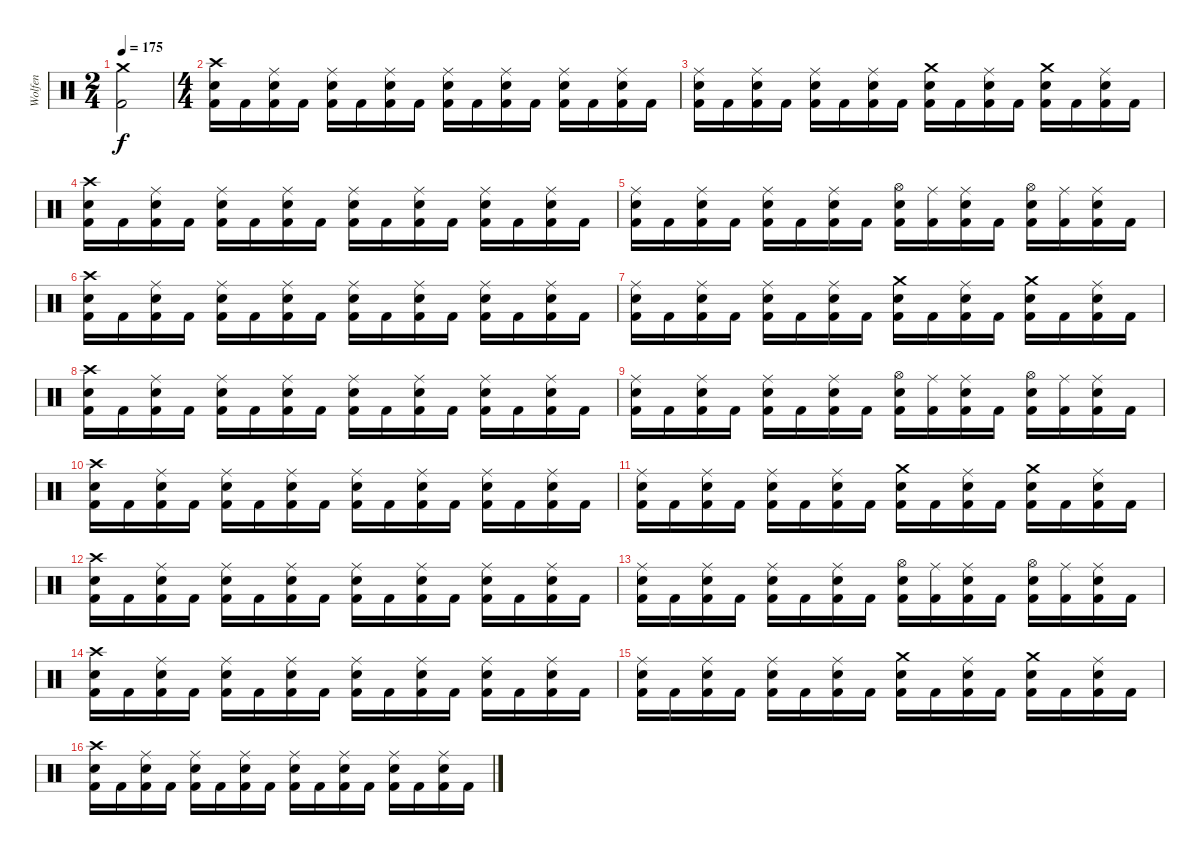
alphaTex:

\track ("Wolfen" "Wolfen") {instrument percussion}
\staff {score}
\articulation defaults
\ts (2 4)
\tempo 175
\clef neutral
\ks c
("Crash medium (hit)" "Kick (hit) 2").2{dy f} |
\ts (4 4)
("Crash high (hit)" "Electric Snare (hit)" "Kick (hit) 2").16 "Kick (hit) 2".16 ("Ride (middle)" "Electric Snare (hit)" "Kick (hit) 2").16 "Kick (hit) 2".16 ("Ride (middle)" "Electric Snare (hit)" "Kick (hit) 2").16 "Kick (hit) 2".16 ("Ride (middle)" "Electric Snare (hit)" "Kick (hit) 2").16 "Kick (hit) 2".16 ("Ride (middle)" "Electric Snare (hit)" "Kick (hit) 2").16 "Kick (hit) 2".16 ("Ride (middle)" "Electric Snare (hit)" "Kick (hit) 2").16 "Kick (hit) 2".16 ("Ride (middle)" "Electric Snare (hit)" "Kick (hit) 2").16 "Kick (hit) 2".16 ("Ride (middle)" "Electric Snare (hit)" "Kick (hit) 2").16 "Kick (hit) 2".16 |
("Ride (middle)" "Electric Snare (hit)" "Kick (hit) 2").16 "Kick (hit) 2".16 ("Ride (middle)" "Electric Snare (hit)" "Kick (hit) 2").16 "Kick (hit) 2".16 ("Ride (middle)" "Electric Snare (hit)" "Kick (hit) 2").16 "Kick (hit) 2".16 ("Ride (middle)" "Electric Snare (hit)" "Kick (hit) 2").16 "Kick (hit) 2".16 ("Crash medium (hit)" "Electric Snare (hit)" "Kick (hit) 2").16 "Kick (hit) 2".16 ("Ride (middle)" "Electric Snare (hit)" "Kick (hit) 2").16 "Kick (hit) 2".16 ("Crash medium (hit)" "Electric Snare (hit)" "Kick (hit) 2").16 "Kick (hit) 2".16 ("Ride (middle)" "Electric Snare (hit)" "Kick (hit) 2").16 "Kick (hit) 2".16 |
("Crash high (hit)" "Electric Snare (hit)" "Kick (hit) 2").16 "Kick (hit) 2".16 ("Ride (middle)" "Electric Snare (hit)" "Kick (hit) 2").16 "Kick (hit) 2".16 ("Ride (middle)" "Electric Snare (hit)" "Kick (hit) 2").16 "Kick (hit) 2".16 ("Ride (middle)" "Electric Snare (hit)" "Kick (hit) 2").16 "Kick (hit) 2".16 ("Ride (middle)" "Electric Snare (hit)" "Kick (hit) 2").16 "Kick (hit) 2".16 ("Ride (middle)" "Electric Snare (hit)" "Kick (hit) 2").16 "Kick (hit) 2".16 ("Ride (middle)" "Electric Snare (hit)" "Kick (hit) 2").16 "Kick (hit) 2".16 ("Ride (middle)" "Electric Snare (hit)" "Kick (hit) 2").16 "Kick (hit) 2".16 |
("Ride (middle)" "Electric Snare (hit)" "Kick (hit) 2").16 "Kick (hit) 2".16 ("Ride (middle)" "Electric Snare (hit)" "Kick (hit) 2").16 "Kick (hit) 2".16 ("Ride (middle)" "Electric Snare (hit)" "Kick (hit) 2").16 "Kick (hit) 2".16 ("Ride (middle)" "Electric Snare (hit)" "Kick (hit) 2").16 "Kick (hit) 2".16 ("Hi-Hat (open)" "Electric Snare (hit)" "Kick (hit) 2").16 ("Ride (middle)" "Kick (hit) 2").16 ("Ride (middle)" "Electric Snare (hit)" "Kick (hit) 2").16 "Kick (hit) 2".16 ("Hi-Hat (open)" "Electric Snare (hit)" "Kick (hit) 2").16 ("Ride (middle)" "Kick (hit) 2").16 ("Ride (middle)" "Electric Snare (hit)" "Kick (hit) 2").16 "Kick (hit) 2".16 |
("Crash high (hit)" "Electric Snare (hit)" "Kick (hit) 2").16 "Kick (hit) 2".16 ("Ride (middle)" "Electric Snare (hit)" "Kick (hit) 2").16 "Kick (hit) 2".16 ("Ride (middle)" "Electric Snare (hit)" "Kick (hit) 2").16 "Kick (hit) 2".16 ("Ride (middle)" "Electric Snare (hit)" "Kick (hit) 2").16 "Kick (hit) 2".16 ("Ride (middle)" "Electric Snare (hit)" "Kick (hit) 2").16 "Kick (hit) 2".16 ("Ride (middle)" "Electric Snare (hit)" "Kick (hit) 2").16 "Kick (hit) 2".16 ("Ride (middle)" "Electric Snare (hit)" "Kick (hit) 2").16 "Kick (hit) 2".16 ("Ride (middle)" "Electric Snare (hit)" "Kick (hit) 2").16 "Kick (hit) 2".16 |
("Ride (middle)" "Electric Snare (hit)" "Kick (hit) 2").16 "Kick (hit) 2".16 ("Ride (middle)" "Electric Snare (hit)" "Kick (hit) 2").16 "Kick (hit) 2".16 ("Ride (middle)" "Electric Snare (hit)" "Kick (hit) 2").16 "Kick (hit) 2".16 ("Ride (middle)" "Electric Snare (hit)" "Kick (hit) 2").16 "Kick (hit) 2".16 ("Crash medium (hit)" "Electric Snare (hit)" "Kick (hit) 2").16 "Kick (hit) 2".16 ("Ride (middle)" "Electric Snare (hit)" "Kick (hit) 2").16 "Kick (hit) 2".16 ("Crash medium (hit)" "Electric Snare (hit)" "Kick (hit) 2").16 "Kick (hit) 2".16 ("Ride (middle)" "Electric Snare (hit)" "Kick (hit) 2").16 "Kick (hit) 2".16 |
("Crash high (hit)" "Electric Snare (hit)" "Kick (hit) 2").16 "Kick (hit) 2".16 ("Ride (middle)" "Electric Snare (hit)" "Kick (hit) 2").16 "Kick (hit) 2".16 ("Ride (middle)" "Electric Snare (hit)" "Kick (hit) 2").16 "Kick (hit) 2".16 ("Ride (middle)" "Electric Snare (hit)" "Kick (hit) 2").16 "Kick (hit) 2".16 ("Ride (middle)" "Electric Snare (hit)" "Kick (hit) 2").16 "Kick (hit) 2".16 ("Ride (middle)" "Electric Snare (hit)" "Kick (hit) 2").16 "Kick (hit) 2".16 ("Ride (middle)" "Electric Snare (hit)" "Kick (hit) 2").16 "Kick (hit) 2".16 ("Ride (middle)" "Electric Snare (hit)" "Kick (hit) 2").16 "Kick (hit) 2".16 |
("Ride (middle)" "Electric Snare (hit)" "Kick (hit) 2").16 "Kick (hit) 2".16 ("Ride (middle)" "Electric Snare (hit)" "Kick (hit) 2").16 "Kick (hit) 2".16 ("Ride (middle)" "Electric Snare (hit)" "Kick (hit) 2").16 "Kick (hit) 2".16 ("Ride (middle)" "Electric Snare (hit)" "Kick (hit) 2").16 "Kick (hit) 2".16 ("Hi-Hat (open)" "Electric Snare (hit)" "Kick (hit) 2").16 ("Ride (middle)" "Kick (hit) 2").16 ("Ride (middle)" "Electric Snare (hit)" "Kick (hit) 2").16 "Kick (hit) 2".16 ("Hi-Hat (open)" "Electric Snare (hit)" "Kick (hit) 2").16 ("Ride (middle)" "Kick (hit) 2").16 ("Ride (middle)" "Electric Snare (hit)" "Kick (hit) 2").16 "Kick (hit) 2".16 |
("Crash high (hit)" "Electric Snare (hit)" "Kick (hit) 2").16 "Kick (hit) 2".16 ("Ride (middle)" "Electric Snare (hit)" "Kick (hit) 2").16 "Kick (hit) 2".16 ("Ride (middle)" "Electric Snare (hit)" "Kick (hit) 2").16 "Kick (hit) 2".16 ("Ride (middle)" "Electric Snare (hit)" "Kick (hit) 2").16 "Kick (hit) 2".16 ("Ride (middle)" "Electric Snare (hit)" "Kick (hit) 2").16 "Kick (hit) 2".16 ("Ride (middle)" "Electric Snare (hit)" "Kick (hit) 2").16 "Kick (hit) 2".16 ("Ride (middle)" "Electric Snare (hit)" "Kick (hit) 2").16 "Kick (hit) 2".16 ("Ride (middle)" "Electric Snare (hit)" "Kick (hit) 2").16 "Kick (hit) 2".16 |
("Ride (middle)" "Electric Snare (hit)" "Kick (hit) 2").16 "Kick (hit) 2".16 ("Ride (middle)" "Electric Snare (hit)" "Kick (hit) 2").16 "Kick (hit) 2".16 ("Ride (middle)" "Electric Snare (hit)" "Kick (hit) 2").16 "Kick (hit) 2".16 ("Ride (middle)" "Electric Snare (hit)" "Kick (hit) 2").16 "Kick (hit) 2".16 ("Crash medium (hit)" "Electric Snare (hit)" "Kick (hit) 2").16 "Kick (hit) 2".16 ("Ride (middle)" "Electric Snare (hit)" "Kick (hit) 2").16 "Kick (hit) 2".16 ("Crash medium (hit)" "Electric Snare (hit)" "Kick (hit) 2").16 "Kick (hit) 2".16 ("Ride (middle)" "Electric Snare (hit)" "Kick (hit) 2").16 "Kick (hit) 2".16 |
("Crash high (hit)" "Electric Snare (hit)" "Kick (hit) 2").16 "Kick (hit) 2".16 ("Ride (middle)" "Electric Snare (hit)" "Kick (hit) 2").16 "Kick (hit) 2".16 ("Ride (middle)" "Electric Snare (hit)" "Kick (hit) 2").16 "Kick (hit) 2".16 ("Ride (middle)" "Electric Snare (hit)" "Kick (hit) 2").16 "Kick (hit) 2".16 ("Ride (middle)" "Electric Snare (hit)" "Kick (hit) 2").16 "Kick (hit) 2".16 ("Ride (middle)" "Electric Snare (hit)" "Kick (hit) 2").16 "Kick (hit) 2".16 ("Ride (middle)" "Electric Snare (hit)" "Kick (hit) 2").16 "Kick (hit) 2".16 ("Ride (middle)" "Electric Snare (hit)" "Kick (hit) 2").16 "Kick (hit) 2".16 |
("Ride (middle)" "Electric Snare (hit)" "Kick (hit) 2").16 "Kick (hit) 2".16 ("Ride (middle)" "Electric Snare (hit)" "Kick (hit) 2").16 "Kick (hit) 2".16 ("Ride (middle)" "Electric Snare (hit)" "Kick (hit) 2").16 "Kick (hit) 2".16 ("Ride (middle)" "Electric Snare (hit)" "Kick (hit) 2").16 "Kick (hit) 2".16 ("Hi-Hat (open)" "Electric Snare (hit)" "Kick (hit) 2").16 ("Ride (middle)" "Kick (hit) 2").16 ("Ride (middle)" "Electric Snare (hit)" "Kick (hit) 2").16 "Kick (hit) 2".16 ("Hi-Hat (open)" "Electric Snare (hit)" "Kick (hit) 2").16 ("Ride (middle)" "Kick (hit) 2").16 ("Ride (middle)" "Electric Snare (hit)" "Kick (hit) 2").16 "Kick (hit) 2".16 |
("Crash high (hit)" "Electric Snare (hit)" "Kick (hit) 2").16 "Kick (hit) 2".16 ("Ride (middle)" "Electric Snare (hit)" "Kick (hit) 2").16 "Kick (hit) 2".16 ("Ride (middle)" "Electric Snare (hit)" "Kick (hit) 2").16 "Kick (hit) 2".16 ("Ride (middle)" "Electric Snare (hit)" "Kick (hit) 2").16 "Kick (hit) 2".16 ("Ride (middle)" "Electric Snare (hit)" "Kick (hit) 2").16 "Kick (hit) 2".16 ("Ride (middle)" "Electric Snare (hit)" "Kick (hit) 2").16 "Kick (hit) 2".16 ("Ride (middle)" "Electric Snare (hit)" "Kick (hit) 2").16 "Kick (hit) 2".16 ("Ride (middle)" "Electric Snare (hit)" "Kick (hit) 2").16 "Kick (hit) 2".16 |
("Ride (middle)" "Electric Snare (hit)" "Kick (hit) 2").16 "Kick (hit) 2".16 ("Ride (middle)" "Electric Snare (hit)" "Kick (hit) 2").16 "Kick (hit) 2".16 ("Ride (middle)" "Electric Snare (hit)" "Kick (hit) 2").16 "Kick (hit) 2".16 ("Ride (middle)" "Electric Snare (hit)" "Kick (hit) 2").16 "Kick (hit) 2".16 ("Crash medium (hit)" "Electric Snare (hit)" "Kick (hit) 2").16 "Kick (hit) 2".16 ("Ride (middle)" "Electric Snare (hit)" "Kick (hit) 2").16 "Kick (hit) 2".16 ("Crash medium (hit)" "Electric Snare (hit)" "Kick (hit) 2").16 "Kick (hit) 2".16 ("Ride (middle)" "Electric Snare (hit)" "Kick (hit) 2").16 "Kick (hit) 2".16 |
("Crash high (hit)" "Electric Snare (hit)" "Kick (hit) 2").16 "Kick (hit) 2".16 ("Ride (middle)" "Electric Snare (hit)" "Kick (hit) 2").16 "Kick (hit) 2".16 ("Ride (middle)" "Electric Snare (hit)" "Kick (hit) 2").16 "Kick (hit) 2".16 ("Ride (middle)" "Electric Snare (hit)" "Kick (hit) 2").16 "Kick (hit) 2".16 ("Ride (middle)" "Electric Snare (hit)" "Kick (hit) 2").16 "Kick (hit) 2".16 ("Ride (middle)" "Electric Snare (hit)" "Kick (hit) 2").16 "Kick (hit) 2".16 ("Ride (middle)" "Electric Snare (hit)" "Kick (hit) 2").16 "Kick (hit) 2".16 ("Ride (middle)" "Electric Snare (hit)" "Kick (hit) 2").16 "Kick (hit) 2".16
